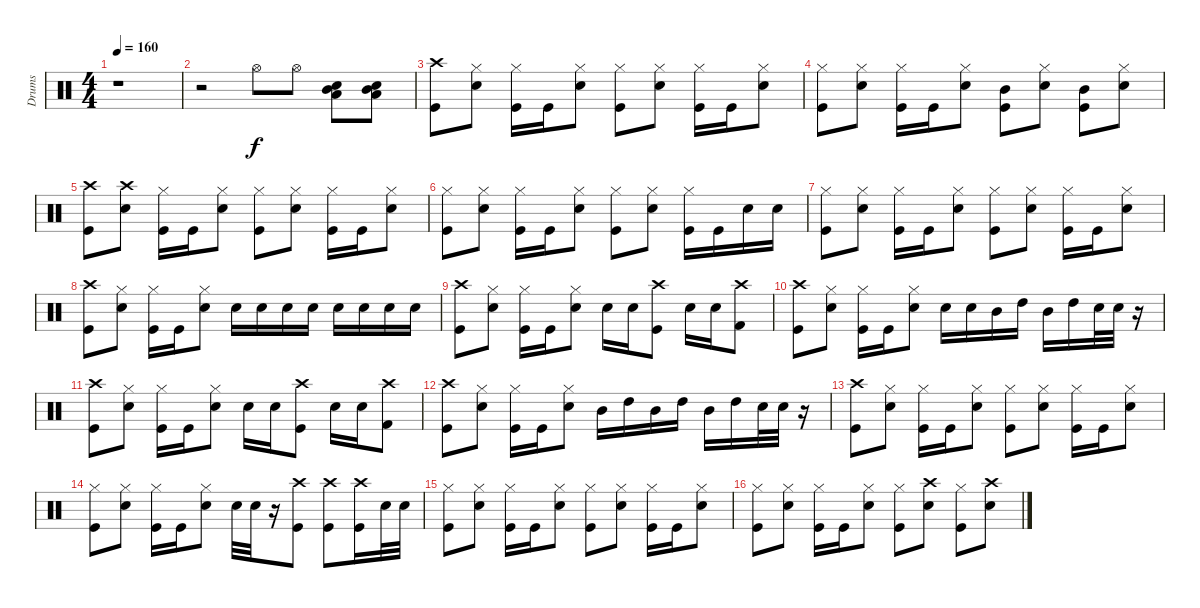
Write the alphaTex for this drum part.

\track ("Drums" "Drums") {instrument percussion}
\staff {score}
\articulation defaults
\ts (4 4)
\tempo 160
\clef neutral
\ks c
r.1{dy f} |
r.2 "Hi-Hat (open)".8 "Hi-Hat (open)".8 ("Electric Snare (hit)" "Low Tom (hit)" "Mid Tom (hit)").8 ("Electric Snare (hit)" "Low Tom (hit)" "Mid Tom (hit)").8 |
("Crash high (hit)" "Kick (hit)").8 ("Hi-Hat (closed)" "Electric Snare (hit)").8 ("Hi-Hat (closed)" "Kick (hit)").16 "Kick (hit)".16 ("Hi-Hat (closed)" "Electric Snare (hit)").8 ("Hi-Hat (closed)" "Kick (hit)").8 ("Hi-Hat (closed)" "Electric Snare (hit)").8 ("Hi-Hat (closed)" "Kick (hit)").16 "Kick (hit)".16 ("Hi-Hat (closed)" "Electric Snare (hit)").8 |
("Hi-Hat (closed)" "Kick (hit)").8 ("Hi-Hat (closed)" "Electric Snare (hit)").8 ("Hi-Hat (closed)" "Kick (hit)").16 "Kick (hit)".16 ("Hi-Hat (closed)" "Electric Snare (hit)").8 ("Mid Tom (hit)" "Kick (hit)").8 ("Hi-Hat (closed)" "Electric Snare (hit)").8 ("Mid Tom (hit)" "Kick (hit)").8 ("Hi-Hat (closed)" "Electric Snare (hit)").8 |
("Crash high (hit)" "Kick (hit)").8 ("Crash high (hit)" "Electric Snare (hit)").8 ("Hi-Hat (closed)" "Kick (hit)").16 "Kick (hit)".16 ("Hi-Hat (closed)" "Electric Snare (hit)").8 ("Hi-Hat (closed)" "Kick (hit)").8 ("Hi-Hat (closed)" "Electric Snare (hit)").8 ("Hi-Hat (closed)" "Kick (hit)").16 "Kick (hit)".16 ("Hi-Hat (closed)" "Electric Snare (hit)").8 |
("Hi-Hat (closed)" "Kick (hit)").8 ("Hi-Hat (closed)" "Electric Snare (hit)").8 ("Hi-Hat (closed)" "Kick (hit)").16 "Kick (hit)".16 ("Hi-Hat (closed)" "Electric Snare (hit)").8 ("Hi-Hat (closed)" "Kick (hit)").8 ("Hi-Hat (closed)" "Electric Snare (hit)").8 ("Hi-Hat (closed)" "Kick (hit)").16 "Kick (hit)".16 "Electric Snare (hit)".16 "Electric Snare (hit)".16 |
("Hi-Hat (closed)" "Kick (hit)").8 ("Hi-Hat (closed)" "Electric Snare (hit)").8 ("Hi-Hat (closed)" "Kick (hit)").16 "Kick (hit)".16 ("Hi-Hat (closed)" "Electric Snare (hit)").8 ("Hi-Hat (closed)" "Kick (hit)").8 ("Hi-Hat (closed)" "Electric Snare (hit)").8 ("Hi-Hat (closed)" "Kick (hit)").16 "Kick (hit)".16 ("Hi-Hat (closed)" "Electric Snare (hit)").8 |
("Crash high (hit)" "Kick (hit)").8 ("Hi-Hat (closed)" "Electric Snare (hit)").8 ("Hi-Hat (closed)" "Kick (hit)").16 "Kick (hit)".16 ("Hi-Hat (closed)" "Electric Snare (hit)").8 "Electric Snare (hit)".16 "Electric Snare (hit)".16 "Electric Snare (hit)".16 "Electric Snare (hit)".16 "Electric Snare (hit)".16 "Electric Snare (hit)".16 "Electric Snare (hit)".16 "Electric Snare (hit)".16 |
("Crash high (hit)" "Kick (hit)").8 ("Hi-Hat (closed)" "Electric Snare (hit)").8 ("Hi-Hat (closed)" "Kick (hit)").16 "Kick (hit)".16 ("Hi-Hat (closed)" "Electric Snare (hit)").8 "Electric Snare (hit)".16 "Electric Snare (hit)".16 ("Crash high (hit)" "Kick (hit)").8 "Electric Snare (hit)".16 "Electric Snare (hit)".16 ("Crash high (hit)" "Kick (hit) 2").8 |
("Crash high (hit)" "Kick (hit)").8 ("Hi-Hat (closed)" "Electric Snare (hit)").8 ("Hi-Hat (closed)" "Kick (hit)").16 "Kick (hit)".16 ("Hi-Hat (closed)" "Electric Snare (hit)").8 "Electric Snare (hit)".16 "Electric Snare (hit)".16 "Mid Tom (hit)".16 "High Tom (hit)".16 "Mid Tom (hit)".16 "High Tom (hit)".16 "Electric Snare (hit)".32 "Electric Snare (hit)".32 r.16 |
("Crash high (hit)" "Kick (hit)").8 ("Hi-Hat (closed)" "Electric Snare (hit)").8 ("Hi-Hat (closed)" "Kick (hit)").16 "Kick (hit)".16 ("Hi-Hat (closed)" "Electric Snare (hit)").8 "Electric Snare (hit)".16 "Electric Snare (hit)".16 ("Crash high (hit)" "Kick (hit)").8 "Electric Snare (hit)".16 "Electric Snare (hit)".16 ("Crash high (hit)" "Kick (hit) 2").8 |
("Crash high (hit)" "Kick (hit)").8 ("Hi-Hat (closed)" "Electric Snare (hit)").8 ("Hi-Hat (closed)" "Kick (hit)").16 "Kick (hit)".16 ("Hi-Hat (closed)" "Electric Snare (hit)").8 "Mid Tom (hit)".16 "High Tom (hit)".16 "Mid Tom (hit)".16 "High Tom (hit)".16 "Mid Tom (hit)".16 "High Tom (hit)".16 "Electric Snare (hit)".32 "Electric Snare (hit)".32 r.16 |
("Crash high (hit)" "Kick (hit)").8 ("Hi-Hat (closed)" "Electric Snare (hit)").8 ("Hi-Hat (closed)" "Kick (hit)").16 "Kick (hit)".16 ("Hi-Hat (closed)" "Electric Snare (hit)").8 ("Hi-Hat (closed)" "Kick (hit)").8 ("Hi-Hat (closed)" "Electric Snare (hit)").8 ("Hi-Hat (closed)" "Kick (hit)").16 "Kick (hit)".16 ("Hi-Hat (closed)" "Electric Snare (hit)").8 |
("Hi-Hat (closed)" "Kick (hit)").8 ("Hi-Hat (closed)" "Electric Snare (hit)").8 ("Hi-Hat (closed)" "Kick (hit)").16 "Kick (hit)".16 ("Hi-Hat (closed)" "Electric Snare (hit)").8 "Electric Snare (hit)".32 "Electric Snare (hit)".32 r.16 ("Crash high (hit)" "Kick (hit)").8 ("Crash high (hit)" "Kick (hit)").8 ("Crash high (hit)" "Kick (hit)").16 "Electric Snare (hit)".32 "Electric Snare (hit)".32 |
("Hi-Hat (closed)" "Kick (hit)").8 ("Hi-Hat (closed)" "Electric Snare (hit)").8 ("Hi-Hat (closed)" "Kick (hit)").16 "Kick (hit)".16 ("Hi-Hat (closed)" "Electric Snare (hit)").8 ("Hi-Hat (closed)" "Kick (hit)").8 ("Hi-Hat (closed)" "Electric Snare (hit)").8 ("Hi-Hat (closed)" "Kick (hit)").16 "Kick (hit)".16 ("Hi-Hat (closed)" "Electric Snare (hit)").8 |
("Hi-Hat (closed)" "Kick (hit)").8 ("Hi-Hat (closed)" "Electric Snare (hit)").8 ("Hi-Hat (closed)" "Kick (hit)").16 "Kick (hit)".16 ("Hi-Hat (closed)" "Electric Snare (hit)").8 ("Hi-Hat (closed)" "Kick (hit)").8 ("Crash high (hit)" "Electric Snare (hit)").8 ("Hi-Hat (closed)" "Kick (hit)").8 ("Crash high (hit)" "Electric Snare (hit)").8
